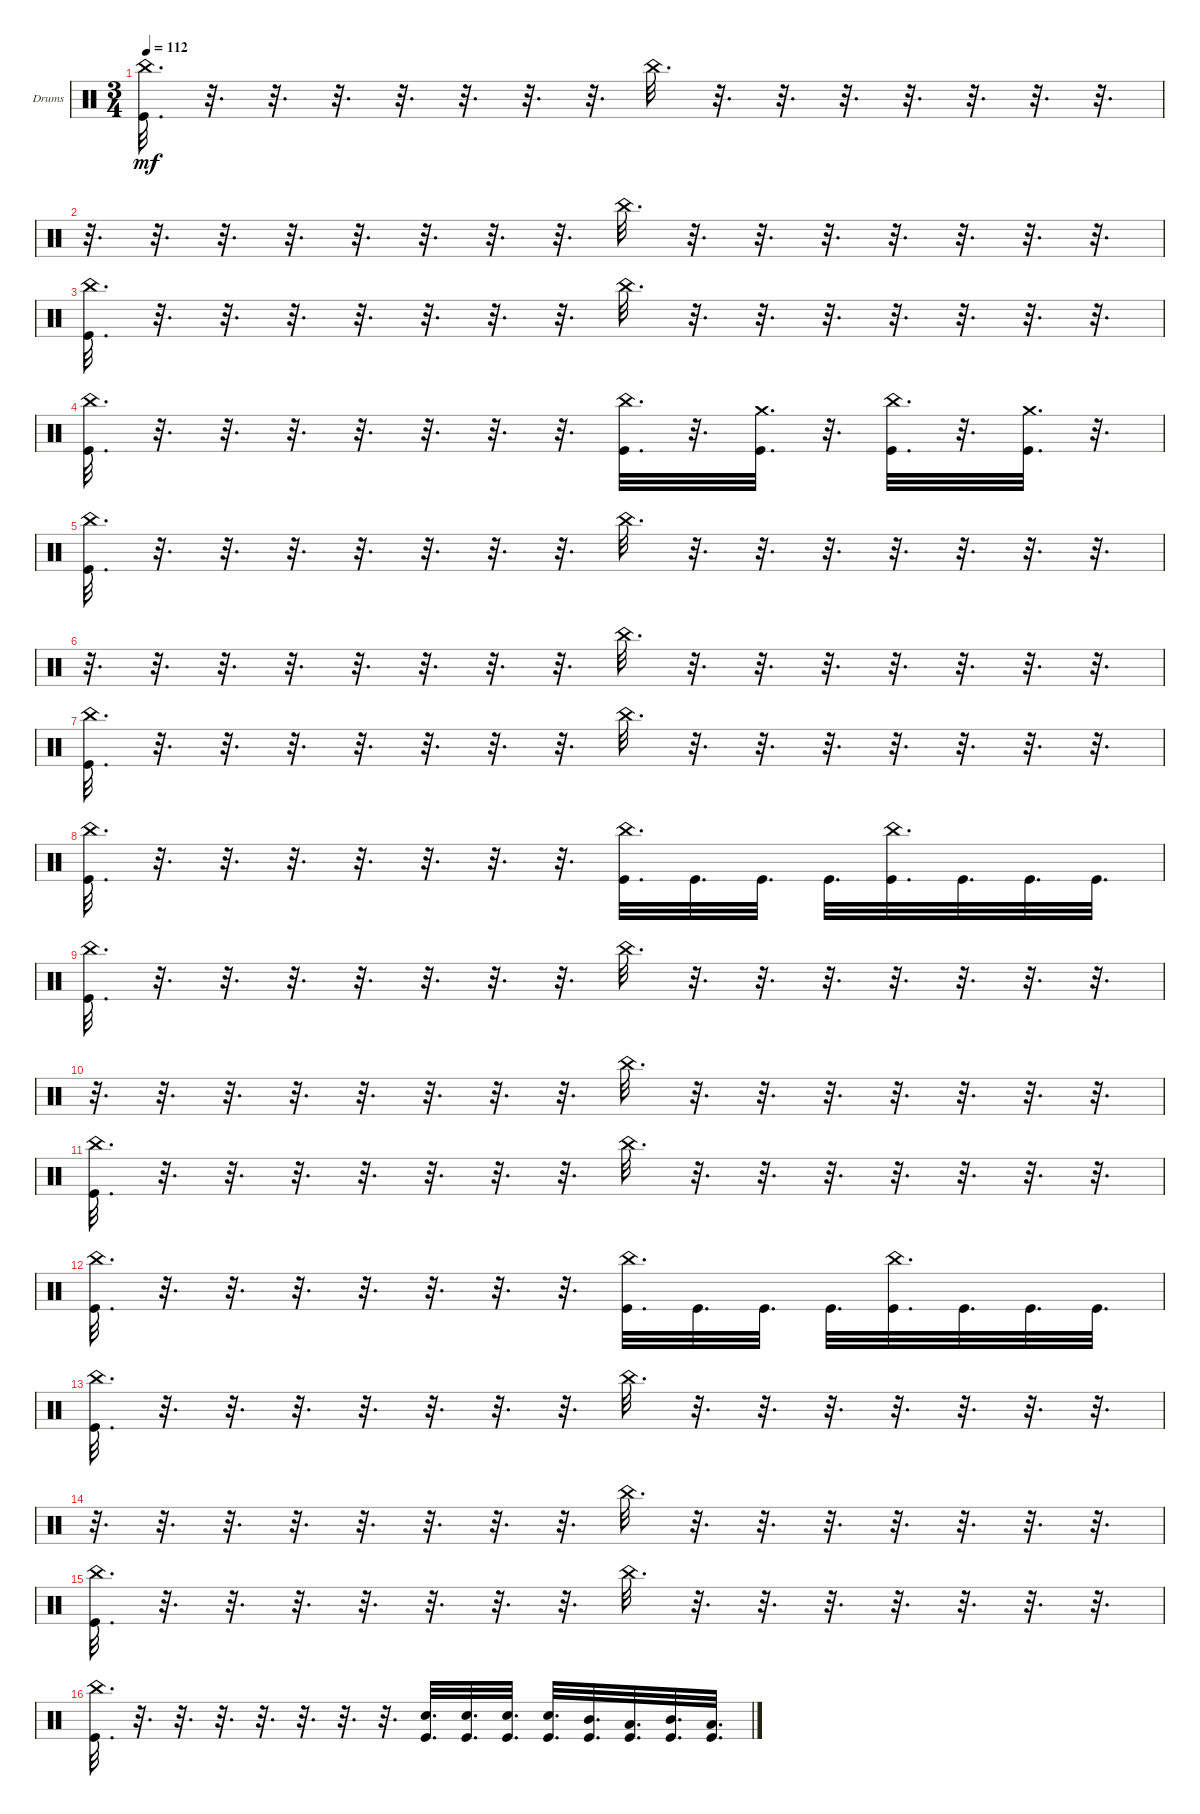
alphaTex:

\bracketExtendMode groupsimilarinstruments
\firstSystemTrackNameOrientation horizontal
\otherSystemsTrackNameOrientation horizontal
\track ("Drumkit" "Drums") {instrument percussion}
\staff {score}
\articulation defaults
\ts (3 4)
\tempo 112
\clef neutral
\ks c
("China (hit)" "Kick (hit)").32{d dy mf} r.32{d} r.32{d} r.32{d} r.32{d} r.32{d} r.32{d} r.32{d} "China (hit)".32{d} r.32{d} r.32{d} r.32{d} r.32{d} r.32{d} r.32{d} r.32{d} |
r.32{d} r.32{d} r.32{d} r.32{d} r.32{d} r.32{d} r.32{d} r.32{d} "China (hit)".32{d} r.32{d} r.32{d} r.32{d} r.32{d} r.32{d} r.32{d} r.32{d} |
("China (hit)" "Kick (hit)").32{d} r.32{d} r.32{d} r.32{d} r.32{d} r.32{d} r.32{d} r.32{d} "China (hit)".32{d} r.32{d} r.32{d} r.32{d} r.32{d} r.32{d} r.32{d} r.32{d} |
("China (hit)" "Kick (hit)").32{d} r.32{d} r.32{d} r.32{d} r.32{d} r.32{d} r.32{d} r.32{d} ("China (hit)" "Kick (hit)").32{d} r.32{d} ("Kick (hit)" "Crash medium (hit)").32{d} r.32{d} ("China (hit)" "Kick (hit)").32{d} r.32{d} ("Kick (hit)" "Crash medium (hit)").32{d} r.32{d} |
("China (hit)" "Kick (hit)").32{d} r.32{d} r.32{d} r.32{d} r.32{d} r.32{d} r.32{d} r.32{d} "China (hit)".32{d} r.32{d} r.32{d} r.32{d} r.32{d} r.32{d} r.32{d} r.32{d} |
r.32{d} r.32{d} r.32{d} r.32{d} r.32{d} r.32{d} r.32{d} r.32{d} "China (hit)".32{d} r.32{d} r.32{d} r.32{d} r.32{d} r.32{d} r.32{d} r.32{d} |
("China (hit)" "Kick (hit)").32{d} r.32{d} r.32{d} r.32{d} r.32{d} r.32{d} r.32{d} r.32{d} "China (hit)".32{d} r.32{d} r.32{d} r.32{d} r.32{d} r.32{d} r.32{d} r.32{d} |
("China (hit)" "Kick (hit)").32{d} r.32{d} r.32{d} r.32{d} r.32{d} r.32{d} r.32{d} r.32{d} ("China (hit)" "Kick (hit)").32{d} "Kick (hit)".32{d} "Kick (hit)".32{d} "Kick (hit)".32{d} ("China (hit)" "Kick (hit)").32{d} "Kick (hit)".32{d} "Kick (hit)".32{d} "Kick (hit)".32{d} |
("China (hit)" "Kick (hit)").32{d} r.32{d} r.32{d} r.32{d} r.32{d} r.32{d} r.32{d} r.32{d} "China (hit)".32{d} r.32{d} r.32{d} r.32{d} r.32{d} r.32{d} r.32{d} r.32{d} |
r.32{d} r.32{d} r.32{d} r.32{d} r.32{d} r.32{d} r.32{d} r.32{d} "China (hit)".32{d} r.32{d} r.32{d} r.32{d} r.32{d} r.32{d} r.32{d} r.32{d} |
("China (hit)" "Kick (hit)").32{d} r.32{d} r.32{d} r.32{d} r.32{d} r.32{d} r.32{d} r.32{d} "China (hit)".32{d} r.32{d} r.32{d} r.32{d} r.32{d} r.32{d} r.32{d} r.32{d} |
("China (hit)" "Kick (hit)").32{d} r.32{d} r.32{d} r.32{d} r.32{d} r.32{d} r.32{d} r.32{d} ("China (hit)" "Kick (hit)").32{d} "Kick (hit)".32{d} "Kick (hit)".32{d} "Kick (hit)".32{d} ("China (hit)" "Kick (hit)").32{d} "Kick (hit)".32{d} "Kick (hit)".32{d} "Kick (hit)".32{d} |
("China (hit)" "Kick (hit)").32{d} r.32{d} r.32{d} r.32{d} r.32{d} r.32{d} r.32{d} r.32{d} "China (hit)".32{d} r.32{d} r.32{d} r.32{d} r.32{d} r.32{d} r.32{d} r.32{d} |
r.32{d} r.32{d} r.32{d} r.32{d} r.32{d} r.32{d} r.32{d} r.32{d} "China (hit)".32{d} r.32{d} r.32{d} r.32{d} r.32{d} r.32{d} r.32{d} r.32{d} |
("China (hit)" "Kick (hit)").32{d} r.32{d} r.32{d} r.32{d} r.32{d} r.32{d} r.32{d} r.32{d} "China (hit)".32{d} r.32{d} r.32{d} r.32{d} r.32{d} r.32{d} r.32{d} r.32{d} |
("China (hit)" "Kick (hit)").32{d} r.32{d} r.32{d} r.32{d} r.32{d} r.32{d} r.32{d} r.32{d} ("Snare (hit) 2" "Kick (hit)").32{d} ("Snare (hit) 2" "Kick (hit)").32{d} ("Snare (hit) 2" "Kick (hit)").32{d} ("Snare (hit) 2" "Kick (hit)").32{d} ("Mid Tom (hit)" "Kick (hit)").32{d} ("Low Tom (hit)" "Kick (hit)").32{d} ("Mid Tom (hit)" "Kick (hit)").32{d} ("Low Tom (hit)" "Kick (hit)").32{d}
